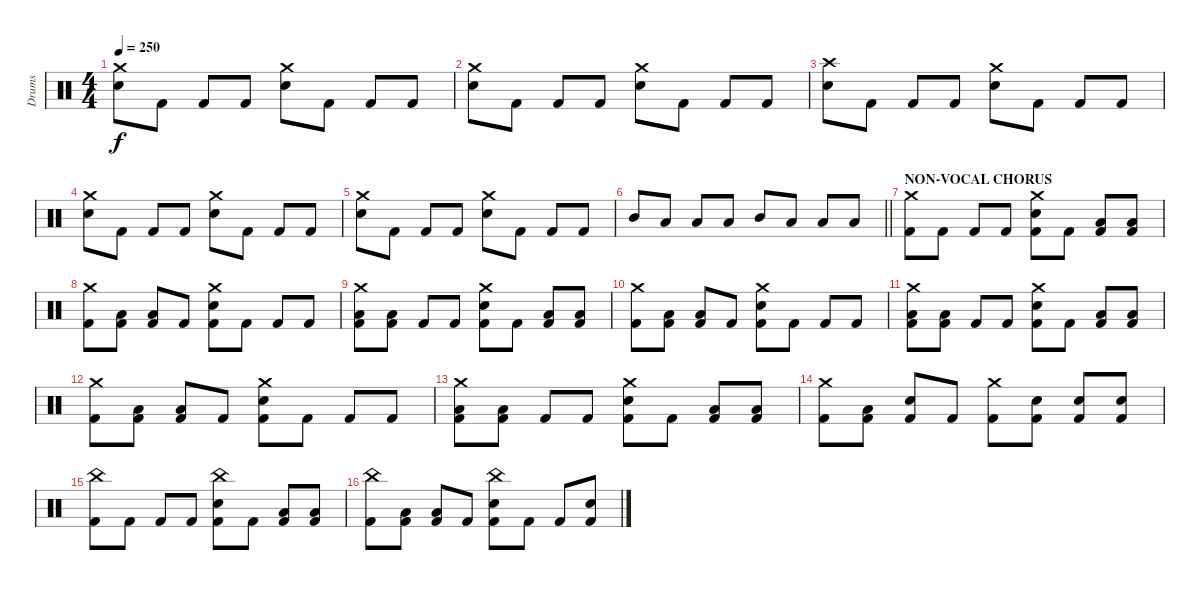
\track ("Drums" "Drums") {instrument percussion}
\staff {score}
\articulation defaults
\ts (4 4)
\tempo 250
\clef neutral
\ks c
("Crash medium (hit)" "Electric Snare (hit)").8{dy f} "Kick (hit) 2".8 "Kick (hit) 2".8 "Kick (hit) 2".8 ("Crash medium (hit)" "Electric Snare (hit)").8 "Kick (hit) 2".8 "Kick (hit) 2".8 "Kick (hit) 2".8 |
("Crash medium (hit)" "Electric Snare (hit)").8 "Kick (hit) 2".8 "Kick (hit) 2".8 "Kick (hit) 2".8 ("Crash medium (hit)" "Electric Snare (hit)").8 "Kick (hit) 2".8 "Kick (hit) 2".8 "Kick (hit) 2".8 |
("Crash high (hit)" "Electric Snare (hit)").8 "Kick (hit) 2".8 "Kick (hit) 2".8 "Kick (hit) 2".8 ("Crash medium (hit)" "Electric Snare (hit)").8 "Kick (hit) 2".8 "Kick (hit) 2".8 "Kick (hit) 2".8 |
("Crash medium (hit)" "Electric Snare (hit)").8 "Kick (hit) 2".8 "Kick (hit) 2".8 "Kick (hit) 2".8 ("Crash medium (hit)" "Electric Snare (hit)").8 "Kick (hit) 2".8 "Kick (hit) 2".8 "Kick (hit) 2".8 |
("Crash medium (hit)" "Electric Snare (hit)").8 "Kick (hit) 2".8 "Kick (hit) 2".8 "Kick (hit) 2".8 ("Crash medium (hit)" "Electric Snare (hit)").8 "Kick (hit) 2".8 "Kick (hit) 2".8 "Kick (hit) 2".8 |
\barLineRight lightlight "Mid Tom (hit)".8 "Low Tom (hit)".8 "Low Floor Tom (hit)".8 "Low Tom (hit)".8 "Mid Tom (hit)".8 "Low Tom (hit)".8 "Low Floor Tom (hit)".8 "Low Tom (hit)".8
|
\section ("" "NON-VOCAL CHORUS")
("Crash medium (hit)" "Kick (hit) 2").8 "Kick (hit) 2".8 "Kick (hit) 2".8 "Kick (hit) 2".8 ("Crash medium (hit)" "Electric Snare (hit)" "Kick (hit) 2").8 "Kick (hit) 2".8 ("Low Tom (hit)" "Kick (hit) 2").8 ("Low Floor Tom (hit)" "Kick (hit) 2").8 |
("Crash medium (hit)" "Kick (hit) 2").8 ("Low Tom (hit)" "Kick (hit) 2").8 ("Low Floor Tom (hit)" "Kick (hit) 2").8 "Kick (hit) 2".8 ("Crash medium (hit)" "Electric Snare (hit)" "Kick (hit) 2").8 "Kick (hit) 2".8 "Kick (hit) 2".8 "Kick (hit) 2".8 |
("Crash medium (hit)" "Low Tom (hit)" "Kick (hit) 2").8 ("Low Floor Tom (hit)" "Kick (hit) 2").8 "Kick (hit) 2".8 "Kick (hit) 2".8 ("Crash medium (hit)" "Electric Snare (hit)" "Kick (hit) 2").8 "Kick (hit) 2".8 ("Low Tom (hit)" "Kick (hit) 2").8 ("Low Floor Tom (hit)" "Kick (hit) 2").8 |
("Crash medium (hit)" "Kick (hit) 2").8 ("Low Tom (hit)" "Kick (hit) 2").8 ("Low Floor Tom (hit)" "Kick (hit) 2").8 "Kick (hit) 2".8 ("Crash medium (hit)" "Electric Snare (hit)" "Kick (hit) 2").8 "Kick (hit) 2".8 "Kick (hit) 2".8 "Kick (hit) 2".8 |
("Crash medium (hit)" "Low Tom (hit)" "Kick (hit) 2").8 ("Low Floor Tom (hit)" "Kick (hit) 2").8 "Kick (hit) 2".8 "Kick (hit) 2".8 ("Crash medium (hit)" "Electric Snare (hit)" "Kick (hit) 2").8 "Kick (hit) 2".8 ("Low Tom (hit)" "Kick (hit) 2").8 ("Low Floor Tom (hit)" "Kick (hit) 2").8 |
("Crash medium (hit)" "Kick (hit) 2").8 ("Low Tom (hit)" "Kick (hit) 2").8 ("Low Floor Tom (hit)" "Kick (hit) 2").8 "Kick (hit) 2".8 ("Crash medium (hit)" "Electric Snare (hit)" "Kick (hit) 2").8 "Kick (hit) 2".8 "Kick (hit) 2".8 "Kick (hit) 2".8 |
("Crash medium (hit)" "Low Tom (hit)" "Kick (hit) 2").8 ("Low Floor Tom (hit)" "Kick (hit) 2").8 "Kick (hit) 2".8 "Kick (hit) 2".8 ("Crash medium (hit)" "Electric Snare (hit)" "Kick (hit) 2").8 "Kick (hit) 2".8 ("Low Tom (hit)" "Kick (hit) 2").8 ("Low Floor Tom (hit)" "Kick (hit) 2").8 |
("Crash medium (hit)" "Kick (hit) 2").8 ("Low Tom (hit)" "Kick (hit) 2").8 ("Electric Snare (hit)" "Kick (hit) 2").8 "Kick (hit) 2".8 ("Crash medium (hit)" "Kick (hit) 2").8 ("Electric Snare (hit)" "Kick (hit) 2").8 ("Electric Snare (hit)" "Kick (hit) 2").8 ("Electric Snare (hit)" "Kick (hit) 2").8 |
("China (hit)" "Kick (hit) 2").8 "Kick (hit) 2".8 "Kick (hit) 2".8 "Kick (hit) 2".8 ("China (hit)" "Electric Snare (hit)" "Kick (hit) 2").8 "Kick (hit) 2".8 ("Low Tom (hit)" "Kick (hit) 2").8 ("Low Floor Tom (hit)" "Kick (hit) 2").8 |
("China (hit)" "Kick (hit) 2").8 ("Low Tom (hit)" "Kick (hit) 2").8 ("Low Floor Tom (hit)" "Kick (hit) 2").8 "Kick (hit) 2".8 ("China (hit)" "Electric Snare (hit)" "Kick (hit) 2").8 "Kick (hit) 2".8 "Kick (hit) 2".8 ("Electric Snare (hit)" "Kick (hit) 2").8
